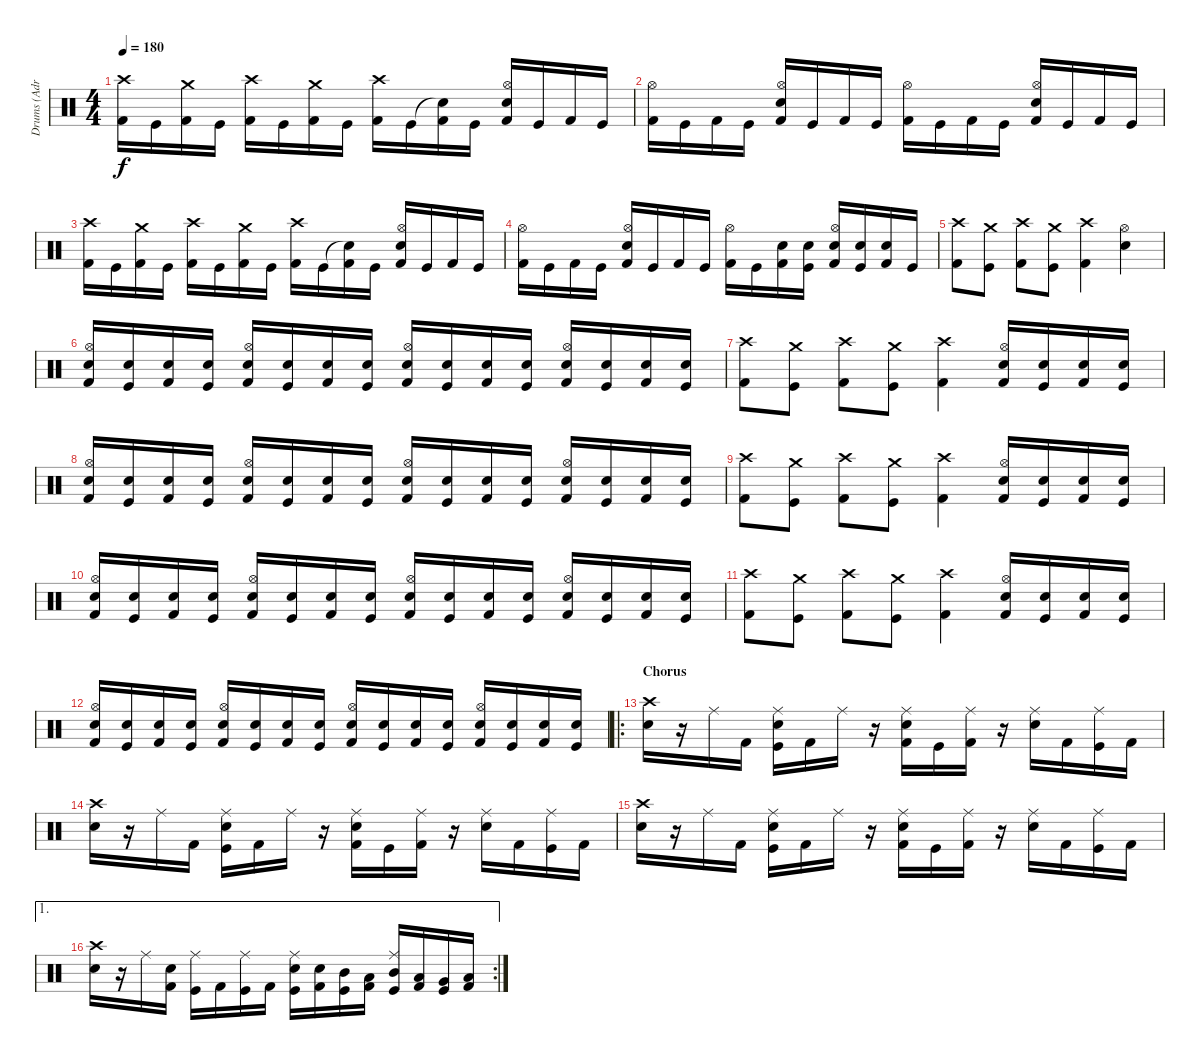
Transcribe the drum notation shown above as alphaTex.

\track ("Drums (Adrian)" "Drums (Adr") {instrument percussion}
\staff {score}
\articulation defaults
\ts (4 4)
\tempo 180
\clef neutral
\ks c
("Crash high (hit)" "Kick (hit) 2").16{dy f} "Kick (hit)".16 ("Crash medium (hit)" "Kick (hit) 2").16 "Kick (hit)".16 ("Crash high (hit)" "Kick (hit) 2").16 "Kick (hit)".16 ("Crash medium (hit)" "Kick (hit) 2").16 "Kick (hit)".16 ("Crash high (hit)" "Kick (hit) 2").16 "Kick (hit)".16 ("Snare (hit)"{t} "Kick (hit) 2").16 "Kick (hit)".16 ("Hi-Hat (open)" "Electric Snare (hit)" "Kick (hit) 2").16 "Kick (hit)".16 "Kick (hit) 2".16 "Kick (hit)".16 |
("Hi-Hat (open)" "Kick (hit) 2").16 "Kick (hit)".16 "Kick (hit) 2".16 "Kick (hit)".16 ("Hi-Hat (open)" "Electric Snare (hit)" "Kick (hit) 2").16 "Kick (hit)".16 "Kick (hit) 2".16 "Kick (hit)".16 ("Hi-Hat (open)" "Kick (hit) 2").16 "Kick (hit)".16 "Kick (hit) 2".16 "Kick (hit)".16 ("Hi-Hat (open)" "Electric Snare (hit)" "Kick (hit) 2").16 "Kick (hit)".16 "Kick (hit) 2".16 "Kick (hit)".16 |
("Crash high (hit)" "Kick (hit) 2").16 "Kick (hit)".16 ("Crash medium (hit)" "Kick (hit) 2").16 "Kick (hit)".16 ("Crash high (hit)" "Kick (hit) 2").16 "Kick (hit)".16 ("Crash medium (hit)" "Kick (hit) 2").16 "Kick (hit)".16 ("Crash high (hit)" "Kick (hit) 2").16 "Kick (hit)".16 ("Snare (hit)"{t} "Kick (hit) 2").16 "Kick (hit)".16 ("Hi-Hat (open)" "Electric Snare (hit)" "Kick (hit) 2").16 "Kick (hit)".16 "Kick (hit) 2".16 "Kick (hit)".16 |
("Hi-Hat (open)" "Kick (hit) 2").16 "Kick (hit)".16 "Kick (hit) 2".16 "Kick (hit)".16 ("Hi-Hat (open)" "Electric Snare (hit)" "Kick (hit) 2").16 "Kick (hit)".16 "Kick (hit) 2".16 "Kick (hit)".16 ("Hi-Hat (open)" "Kick (hit) 2").16 "Kick (hit)".16 ("Electric Snare (hit)" "Kick (hit) 2").16 ("Electric Snare (hit)" "Kick (hit)").16 ("Hi-Hat (open)" "Electric Snare (hit)" "Kick (hit) 2").16 ("Electric Snare (hit)" "Kick (hit)").16 ("Electric Snare (hit)" "Kick (hit) 2").16 "Kick (hit)".16 |
("Crash high (hit)" "Kick (hit) 2").8 ("Crash medium (hit)" "Kick (hit)").8 ("Crash high (hit)" "Kick (hit) 2").8 ("Crash medium (hit)" "Kick (hit)").8 ("Crash high (hit)" "Kick (hit) 2").4 ("Hi-Hat (open)" "Electric Snare (hit)").4 |
("Hi-Hat (open)" "Electric Snare (hit)" "Kick (hit) 2").16 ("Electric Snare (hit)" "Kick (hit)").16 ("Electric Snare (hit)" "Kick (hit) 2").16 ("Electric Snare (hit)" "Kick (hit)").16 ("Hi-Hat (open)" "Electric Snare (hit)" "Kick (hit) 2").16 ("Electric Snare (hit)" "Kick (hit)").16 ("Electric Snare (hit)" "Kick (hit) 2").16 ("Electric Snare (hit)" "Kick (hit)").16 ("Hi-Hat (open)" "Electric Snare (hit)" "Kick (hit) 2").16 ("Electric Snare (hit)" "Kick (hit)").16 ("Electric Snare (hit)" "Kick (hit) 2").16 ("Electric Snare (hit)" "Kick (hit)").16 ("Hi-Hat (open)" "Electric Snare (hit)" "Kick (hit) 2").16 ("Electric Snare (hit)" "Kick (hit)").16 ("Electric Snare (hit)" "Kick (hit) 2").16 ("Electric Snare (hit)" "Kick (hit)").16 |
("Crash high (hit)" "Kick (hit) 2").8 ("Crash medium (hit)" "Kick (hit)").8 ("Crash high (hit)" "Kick (hit) 2").8 ("Crash medium (hit)" "Kick (hit)").8 ("Crash high (hit)" "Kick (hit) 2").4 ("Hi-Hat (open)" "Electric Snare (hit)" "Kick (hit) 2").16 ("Electric Snare (hit)" "Kick (hit)").16 ("Electric Snare (hit)" "Kick (hit) 2").16 ("Electric Snare (hit)" "Kick (hit)").16 |
("Hi-Hat (open)" "Electric Snare (hit)" "Kick (hit) 2").16 ("Electric Snare (hit)" "Kick (hit)").16 ("Electric Snare (hit)" "Kick (hit) 2").16 ("Electric Snare (hit)" "Kick (hit)").16 ("Hi-Hat (open)" "Electric Snare (hit)" "Kick (hit) 2").16 ("Electric Snare (hit)" "Kick (hit)").16 ("Electric Snare (hit)" "Kick (hit) 2").16 ("Electric Snare (hit)" "Kick (hit)").16 ("Hi-Hat (open)" "Electric Snare (hit)" "Kick (hit) 2").16 ("Electric Snare (hit)" "Kick (hit)").16 ("Electric Snare (hit)" "Kick (hit) 2").16 ("Electric Snare (hit)" "Kick (hit)").16 ("Hi-Hat (open)" "Electric Snare (hit)" "Kick (hit) 2").16 ("Electric Snare (hit)" "Kick (hit)").16 ("Electric Snare (hit)" "Kick (hit) 2").16 ("Electric Snare (hit)" "Kick (hit)").16 |
("Crash high (hit)" "Kick (hit) 2").8 ("Crash medium (hit)" "Kick (hit)").8 ("Crash high (hit)" "Kick (hit) 2").8 ("Crash medium (hit)" "Kick (hit)").8 ("Crash high (hit)" "Kick (hit) 2").4 ("Hi-Hat (open)" "Electric Snare (hit)" "Kick (hit) 2").16 ("Electric Snare (hit)" "Kick (hit)").16 ("Electric Snare (hit)" "Kick (hit) 2").16 ("Electric Snare (hit)" "Kick (hit)").16 |
("Hi-Hat (open)" "Electric Snare (hit)" "Kick (hit) 2").16 ("Electric Snare (hit)" "Kick (hit)").16 ("Electric Snare (hit)" "Kick (hit) 2").16 ("Electric Snare (hit)" "Kick (hit)").16 ("Hi-Hat (open)" "Electric Snare (hit)" "Kick (hit) 2").16 ("Electric Snare (hit)" "Kick (hit)").16 ("Electric Snare (hit)" "Kick (hit) 2").16 ("Electric Snare (hit)" "Kick (hit)").16 ("Hi-Hat (open)" "Electric Snare (hit)" "Kick (hit) 2").16 ("Electric Snare (hit)" "Kick (hit)").16 ("Electric Snare (hit)" "Kick (hit) 2").16 ("Electric Snare (hit)" "Kick (hit)").16 ("Hi-Hat (open)" "Electric Snare (hit)" "Kick (hit) 2").16 ("Electric Snare (hit)" "Kick (hit)").16 ("Electric Snare (hit)" "Kick (hit) 2").16 ("Electric Snare (hit)" "Kick (hit)").16 |
("Crash high (hit)" "Kick (hit) 2").8 ("Crash medium (hit)" "Kick (hit)").8 ("Crash high (hit)" "Kick (hit) 2").8 ("Crash medium (hit)" "Kick (hit)").8 ("Crash high (hit)" "Kick (hit) 2").4 ("Hi-Hat (open)" "Electric Snare (hit)" "Kick (hit) 2").16 ("Electric Snare (hit)" "Kick (hit)").16 ("Electric Snare (hit)" "Kick (hit) 2").16 ("Electric Snare (hit)" "Kick (hit)").16 |
("Hi-Hat (open)" "Electric Snare (hit)" "Kick (hit) 2").16 ("Electric Snare (hit)" "Kick (hit)").16 ("Electric Snare (hit)" "Kick (hit) 2").16 ("Electric Snare (hit)" "Kick (hit)").16 ("Hi-Hat (open)" "Electric Snare (hit)" "Kick (hit) 2").16 ("Electric Snare (hit)" "Kick (hit)").16 ("Electric Snare (hit)" "Kick (hit) 2").16 ("Electric Snare (hit)" "Kick (hit)").16 ("Hi-Hat (open)" "Electric Snare (hit)" "Kick (hit) 2").16 ("Electric Snare (hit)" "Kick (hit)").16 ("Electric Snare (hit)" "Kick (hit) 2").16 ("Electric Snare (hit)" "Kick (hit)").16 ("Hi-Hat (open)" "Electric Snare (hit)" "Kick (hit) 2").16 ("Electric Snare (hit)" "Kick (hit)").16 ("Electric Snare (hit)" "Kick (hit) 2").16 ("Electric Snare (hit)" "Kick (hit)").16 |
\ro
\section ("" "Chorus")
("Crash high (hit)" "Electric Snare (hit)").16 r.16 "Ride (middle)".16 "Kick (hit) 2".16 ("Ride (middle)" "Electric Snare (hit)" "Kick (hit)").16 "Kick (hit) 2".16 "Ride (middle)".16 r.16 ("Ride (middle)" "Electric Snare (hit)" "Kick (hit) 2").16 "Kick (hit)".16 ("Ride (middle)" "Kick (hit) 2").16 r.16 ("Ride (middle)" "Electric Snare (hit)").16 "Kick (hit) 2".16 ("Ride (middle)" "Kick (hit)").16 "Kick (hit) 2".16 |
("Crash high (hit)" "Electric Snare (hit)").16 r.16 "Ride (middle)".16 "Kick (hit) 2".16 ("Ride (middle)" "Electric Snare (hit)" "Kick (hit)").16 "Kick (hit) 2".16 "Ride (middle)".16 r.16 ("Ride (middle)" "Electric Snare (hit)" "Kick (hit) 2").16 "Kick (hit)".16 ("Ride (middle)" "Kick (hit) 2").16 r.16 ("Ride (middle)" "Electric Snare (hit)").16 "Kick (hit) 2".16 ("Ride (middle)" "Kick (hit)").16 "Kick (hit) 2".16 |
("Crash high (hit)" "Electric Snare (hit)").16 r.16 "Ride (middle)".16 "Kick (hit) 2".16 ("Ride (middle)" "Electric Snare (hit)" "Kick (hit)").16 "Kick (hit) 2".16 "Ride (middle)".16 r.16 ("Ride (middle)" "Electric Snare (hit)" "Kick (hit) 2").16 "Kick (hit)".16 ("Ride (middle)" "Kick (hit) 2").16 r.16 ("Ride (middle)" "Electric Snare (hit)").16 "Kick (hit) 2".16 ("Ride (middle)" "Kick (hit)").16 "Kick (hit) 2".16 |
\ae 1
\rc 2
("Crash high (hit)" "Electric Snare (hit)").16 r.16 "Ride (middle)".16 ("Electric Snare (hit)" "Kick (hit) 2").16 ("Ride (middle)" "Kick (hit)").16 "Kick (hit) 2".16 ("Ride (middle)" "Kick (hit)").16 "Kick (hit) 2".16 ("Ride (middle)" "Electric Snare (hit)" "Kick (hit)").16 ("Electric Snare (hit)" "Kick (hit) 2").16 ("Mid Tom (hit)" "Kick (hit)").16 ("Low Tom (hit)" "Kick (hit) 2").16 ("Ride (middle)" "Mid Tom (hit)" "Kick (hit)").16 ("Low Tom (hit)" "Kick (hit) 2").16 ("Very Low Tom (hit)" "Kick (hit)").16 ("Low Tom (hit)" "Kick (hit) 2").16
